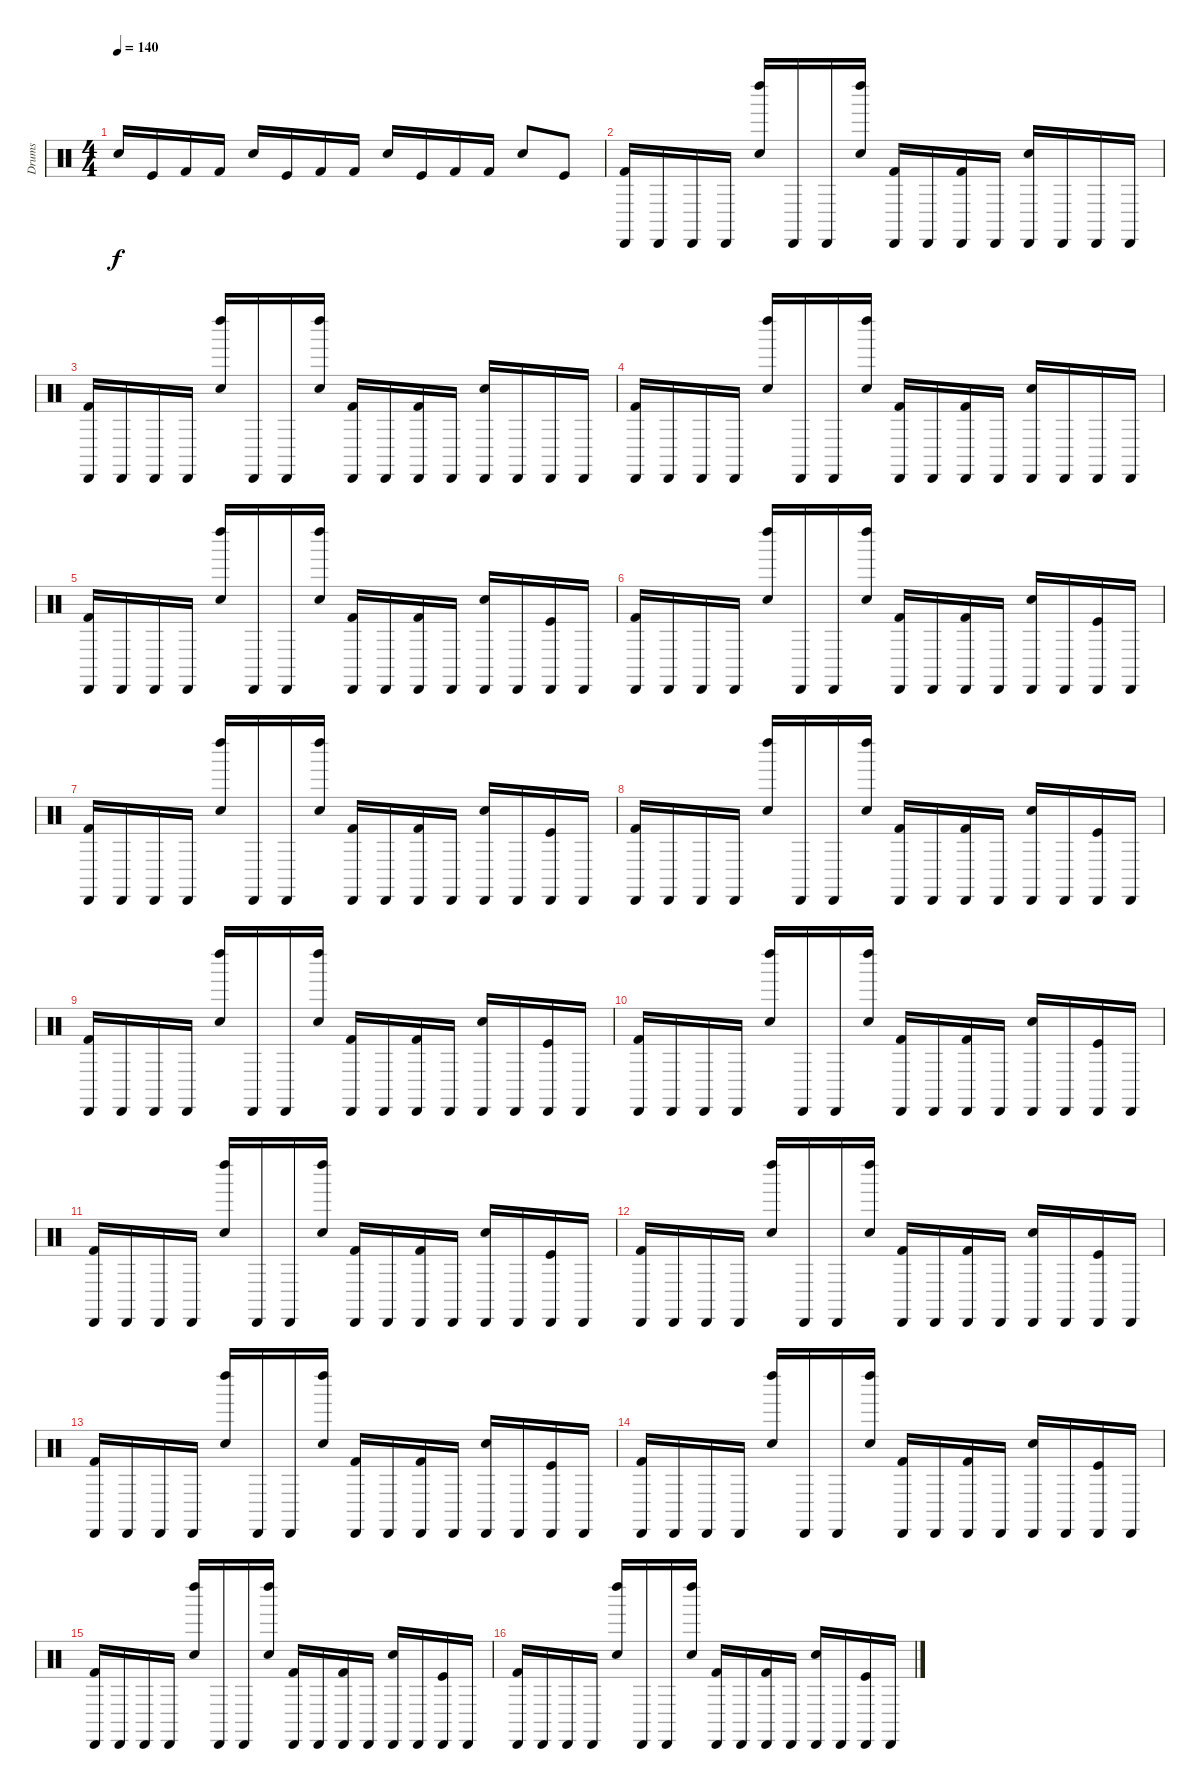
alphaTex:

\track ("Drums" "Drums") {instrument percussion}
\staff {score}
\articulation defaults
\ts (4 4)
\tempo 140
\clef neutral
\ks c "Electric Snare (hit)".16{dy f} "Kick (hit)".16 "Kick (hit) 2".16 "Kick (hit) 2".16 "Electric Snare (hit)".16 "Kick (hit)".16 "Kick (hit) 2".16 "Kick (hit) 2".16 "Electric Snare (hit)".16 "Kick (hit)".16 "Kick (hit) 2".16 "Kick (hit) 2".16 "Electric Snare (hit)".8 "Kick (hit)".8
|
("Cabasa (hit)" "Kick (hit) 2").16 "Cabasa (hit)".16 "Cabasa (hit)".16 "Cabasa (hit)".16 ("Left Maraca (hit)" "Electric Snare (hit)").16 "Cabasa (hit)".16 "Cabasa (hit)".16 ("Left Maraca (hit)" "Electric Snare (hit)").16 ("Cabasa (hit)" "Kick (hit) 2").16 "Cabasa (hit)".16 ("Cabasa (hit)" "Kick (hit) 2").16 "Cabasa (hit)".16 ("Cabasa (hit)" "Electric Snare (hit)").16 "Cabasa (hit)".16 "Cabasa (hit)".16 "Cabasa (hit)".16 |
("Cabasa (hit)" "Kick (hit) 2").16 "Cabasa (hit)".16 "Cabasa (hit)".16 "Cabasa (hit)".16 ("Left Maraca (hit)" "Electric Snare (hit)").16 "Cabasa (hit)".16 "Cabasa (hit)".16 ("Left Maraca (hit)" "Electric Snare (hit)").16 ("Cabasa (hit)" "Kick (hit) 2").16 "Cabasa (hit)".16 ("Cabasa (hit)" "Kick (hit) 2").16 "Cabasa (hit)".16 ("Cabasa (hit)" "Electric Snare (hit)").16 "Cabasa (hit)".16 "Cabasa (hit)".16 "Cabasa (hit)".16 |
("Cabasa (hit)" "Kick (hit) 2").16 "Cabasa (hit)".16 "Cabasa (hit)".16 "Cabasa (hit)".16 ("Left Maraca (hit)" "Electric Snare (hit)").16 "Cabasa (hit)".16 "Cabasa (hit)".16 ("Left Maraca (hit)" "Electric Snare (hit)").16 ("Cabasa (hit)" "Kick (hit) 2").16 "Cabasa (hit)".16 ("Cabasa (hit)" "Kick (hit) 2").16 "Cabasa (hit)".16 ("Cabasa (hit)" "Electric Snare (hit)").16 "Cabasa (hit)".16 "Cabasa (hit)".16 "Cabasa (hit)".16 |
("Cabasa (hit)" "Kick (hit) 2").16 "Cabasa (hit)".16 "Cabasa (hit)".16 "Cabasa (hit)".16 ("Left Maraca (hit)" "Electric Snare (hit)").16 "Cabasa (hit)".16 "Cabasa (hit)".16 ("Left Maraca (hit)" "Electric Snare (hit)").16 ("Cabasa (hit)" "Kick (hit) 2").16 "Cabasa (hit)".16 ("Cabasa (hit)" "Kick (hit) 2").16 "Cabasa (hit)".16 ("Cabasa (hit)" "Electric Snare (hit)").16 "Cabasa (hit)".16 ("Cabasa (hit)" "Kick (hit)").16 "Cabasa (hit)".16 |
("Cabasa (hit)" "Kick (hit) 2").16 "Cabasa (hit)".16 "Cabasa (hit)".16 "Cabasa (hit)".16 ("Left Maraca (hit)" "Electric Snare (hit)").16 "Cabasa (hit)".16 "Cabasa (hit)".16 ("Left Maraca (hit)" "Electric Snare (hit)").16 ("Cabasa (hit)" "Kick (hit) 2").16 "Cabasa (hit)".16 ("Cabasa (hit)" "Kick (hit) 2").16 "Cabasa (hit)".16 ("Cabasa (hit)" "Electric Snare (hit)").16 "Cabasa (hit)".16 ("Cabasa (hit)" "Kick (hit)").16 "Cabasa (hit)".16 |
("Cabasa (hit)" "Kick (hit) 2").16 "Cabasa (hit)".16 "Cabasa (hit)".16 "Cabasa (hit)".16 ("Left Maraca (hit)" "Electric Snare (hit)").16 "Cabasa (hit)".16 "Cabasa (hit)".16 ("Left Maraca (hit)" "Electric Snare (hit)").16 ("Cabasa (hit)" "Kick (hit) 2").16 "Cabasa (hit)".16 ("Cabasa (hit)" "Kick (hit) 2").16 "Cabasa (hit)".16 ("Cabasa (hit)" "Electric Snare (hit)").16 "Cabasa (hit)".16 ("Cabasa (hit)" "Kick (hit)").16 "Cabasa (hit)".16 |
("Cabasa (hit)" "Kick (hit) 2").16 "Cabasa (hit)".16 "Cabasa (hit)".16 "Cabasa (hit)".16 ("Left Maraca (hit)" "Electric Snare (hit)").16 "Cabasa (hit)".16 "Cabasa (hit)".16 ("Left Maraca (hit)" "Electric Snare (hit)").16 ("Cabasa (hit)" "Kick (hit) 2").16 "Cabasa (hit)".16 ("Cabasa (hit)" "Kick (hit) 2").16 "Cabasa (hit)".16 ("Cabasa (hit)" "Electric Snare (hit)").16 "Cabasa (hit)".16 ("Cabasa (hit)" "Kick (hit)").16 "Cabasa (hit)".16 |
("Cabasa (hit)" "Kick (hit) 2").16 "Cabasa (hit)".16 "Cabasa (hit)".16 "Cabasa (hit)".16 ("Left Maraca (hit)" "Electric Snare (hit)").16 "Cabasa (hit)".16 "Cabasa (hit)".16 ("Left Maraca (hit)" "Electric Snare (hit)").16 ("Cabasa (hit)" "Kick (hit) 2").16 "Cabasa (hit)".16 ("Cabasa (hit)" "Kick (hit) 2").16 "Cabasa (hit)".16 ("Cabasa (hit)" "Electric Snare (hit)").16 "Cabasa (hit)".16 ("Cabasa (hit)" "Kick (hit)").16 "Cabasa (hit)".16 |
("Cabasa (hit)" "Kick (hit) 2").16 "Cabasa (hit)".16 "Cabasa (hit)".16 "Cabasa (hit)".16 ("Left Maraca (hit)" "Electric Snare (hit)").16 "Cabasa (hit)".16 "Cabasa (hit)".16 ("Left Maraca (hit)" "Electric Snare (hit)").16 ("Cabasa (hit)" "Kick (hit) 2").16 "Cabasa (hit)".16 ("Cabasa (hit)" "Kick (hit) 2").16 "Cabasa (hit)".16 ("Cabasa (hit)" "Electric Snare (hit)").16 "Cabasa (hit)".16 ("Cabasa (hit)" "Kick (hit)").16 "Cabasa (hit)".16 |
("Cabasa (hit)" "Kick (hit) 2").16 "Cabasa (hit)".16 "Cabasa (hit)".16 "Cabasa (hit)".16 ("Left Maraca (hit)" "Electric Snare (hit)").16 "Cabasa (hit)".16 "Cabasa (hit)".16 ("Left Maraca (hit)" "Electric Snare (hit)").16 ("Cabasa (hit)" "Kick (hit) 2").16 "Cabasa (hit)".16 ("Cabasa (hit)" "Kick (hit) 2").16 "Cabasa (hit)".16 ("Cabasa (hit)" "Electric Snare (hit)").16 "Cabasa (hit)".16 ("Cabasa (hit)" "Kick (hit)").16 "Cabasa (hit)".16 |
("Cabasa (hit)" "Kick (hit) 2").16 "Cabasa (hit)".16 "Cabasa (hit)".16 "Cabasa (hit)".16 ("Left Maraca (hit)" "Electric Snare (hit)").16 "Cabasa (hit)".16 "Cabasa (hit)".16 ("Left Maraca (hit)" "Electric Snare (hit)").16 ("Cabasa (hit)" "Kick (hit) 2").16 "Cabasa (hit)".16 ("Cabasa (hit)" "Kick (hit) 2").16 "Cabasa (hit)".16 ("Cabasa (hit)" "Electric Snare (hit)").16 "Cabasa (hit)".16 ("Cabasa (hit)" "Kick (hit)").16 "Cabasa (hit)".16 |
("Cabasa (hit)" "Kick (hit) 2").16 "Cabasa (hit)".16 "Cabasa (hit)".16 "Cabasa (hit)".16 ("Left Maraca (hit)" "Electric Snare (hit)").16 "Cabasa (hit)".16 "Cabasa (hit)".16 ("Left Maraca (hit)" "Electric Snare (hit)").16 ("Cabasa (hit)" "Kick (hit) 2").16 "Cabasa (hit)".16 ("Cabasa (hit)" "Kick (hit) 2").16 "Cabasa (hit)".16 ("Cabasa (hit)" "Electric Snare (hit)").16 "Cabasa (hit)".16 ("Cabasa (hit)" "Kick (hit)").16 "Cabasa (hit)".16 |
("Cabasa (hit)" "Kick (hit) 2").16 "Cabasa (hit)".16 "Cabasa (hit)".16 "Cabasa (hit)".16 ("Left Maraca (hit)" "Electric Snare (hit)").16 "Cabasa (hit)".16 "Cabasa (hit)".16 ("Left Maraca (hit)" "Electric Snare (hit)").16 ("Cabasa (hit)" "Kick (hit) 2").16 "Cabasa (hit)".16 ("Cabasa (hit)" "Kick (hit) 2").16 "Cabasa (hit)".16 ("Cabasa (hit)" "Electric Snare (hit)").16 "Cabasa (hit)".16 ("Cabasa (hit)" "Kick (hit)").16 "Cabasa (hit)".16 |
("Cabasa (hit)" "Kick (hit) 2").16 "Cabasa (hit)".16 "Cabasa (hit)".16 "Cabasa (hit)".16 ("Left Maraca (hit)" "Electric Snare (hit)").16 "Cabasa (hit)".16 "Cabasa (hit)".16 ("Left Maraca (hit)" "Electric Snare (hit)").16 ("Cabasa (hit)" "Kick (hit) 2").16 "Cabasa (hit)".16 ("Cabasa (hit)" "Kick (hit) 2").16 "Cabasa (hit)".16 ("Cabasa (hit)" "Electric Snare (hit)").16 "Cabasa (hit)".16 ("Cabasa (hit)" "Kick (hit)").16 "Cabasa (hit)".16 |
("Cabasa (hit)" "Kick (hit) 2").16 "Cabasa (hit)".16 "Cabasa (hit)".16 "Cabasa (hit)".16 ("Left Maraca (hit)" "Electric Snare (hit)").16 "Cabasa (hit)".16 "Cabasa (hit)".16 ("Left Maraca (hit)" "Electric Snare (hit)").16 ("Cabasa (hit)" "Kick (hit) 2").16 "Cabasa (hit)".16 ("Cabasa (hit)" "Kick (hit) 2").16 "Cabasa (hit)".16 ("Cabasa (hit)" "Electric Snare (hit)").16 "Cabasa (hit)".16 ("Cabasa (hit)" "Kick (hit)").16 "Cabasa (hit)".16
